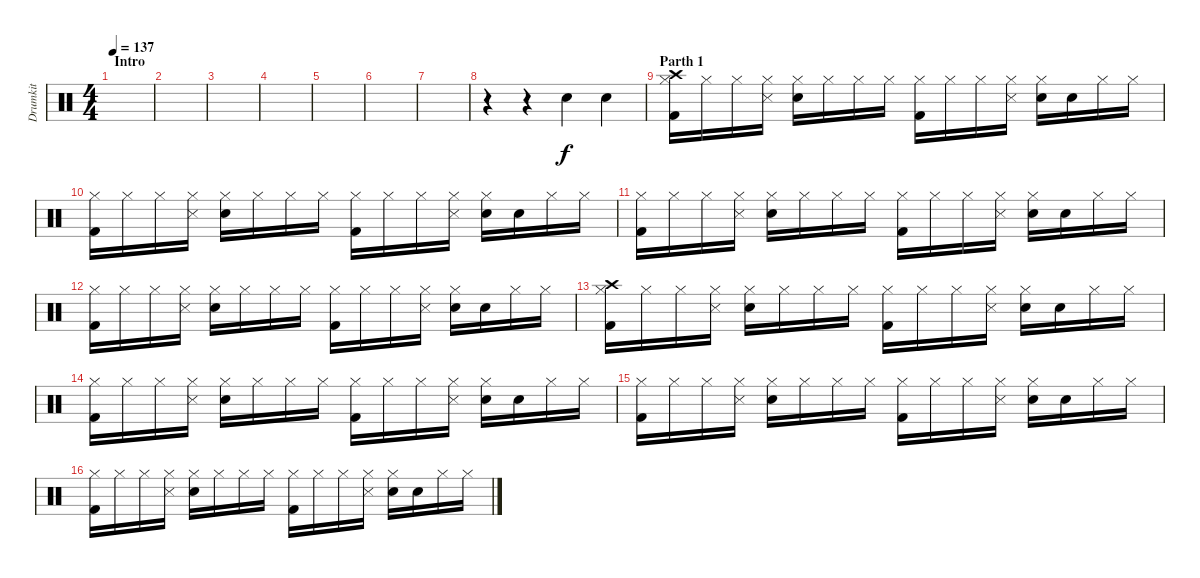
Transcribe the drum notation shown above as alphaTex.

\track ("Drumkit" "Drumkit") {instrument percussion}
\staff {score}
\articulation defaults
\ts (4 4)
\section ("" "Intro")
\tempo 137
\clef neutral
\ks c
|
|
|
|
|
|
|
r.4 r.4 "Snare (hit) 2".4 "Snare (hit) 2".4 |
\section ("" "Parth 1")
("Hi-Hat (closed)" "Crash high (hit)" "Kick (hit) 2").16 "Hi-Hat (closed)".16 "Hi-Hat (closed)".16 ("Hi-Hat (closed)" "Snare (side stick) 3").16 ("Hi-Hat (closed)" "Electric Snare (hit)").16 "Hi-Hat (closed)".16 "Hi-Hat (closed)".16 "Hi-Hat (closed)".16 ("Hi-Hat (closed)" "Kick (hit) 2").16 "Hi-Hat (closed)".16 "Hi-Hat (closed)".16 ("Hi-Hat (closed)" "Snare (side stick) 3").16 ("Hi-Hat (closed)" "Electric Snare (hit)").16 "Snare (hit)".16 "Hi-Hat (closed)".16 "Hi-Hat (closed)".16 |
("Hi-Hat (closed)" "Kick (hit) 2").16 "Hi-Hat (closed)".16 "Hi-Hat (closed)".16 ("Hi-Hat (closed)" "Snare (side stick) 3").16 ("Hi-Hat (closed)" "Electric Snare (hit)").16 "Hi-Hat (closed)".16 "Hi-Hat (closed)".16 "Hi-Hat (closed)".16 ("Hi-Hat (closed)" "Kick (hit) 2").16 "Hi-Hat (closed)".16 "Hi-Hat (closed)".16 ("Hi-Hat (closed)" "Snare (side stick) 3").16 ("Hi-Hat (closed)" "Electric Snare (hit)").16 "Snare (hit)".16 "Hi-Hat (closed)".16 "Hi-Hat (closed)".16 |
("Hi-Hat (closed)" "Kick (hit) 2").16 "Hi-Hat (closed)".16 "Hi-Hat (closed)".16 ("Hi-Hat (closed)" "Snare (side stick) 3").16 ("Hi-Hat (closed)" "Electric Snare (hit)").16 "Hi-Hat (closed)".16 "Hi-Hat (closed)".16 "Hi-Hat (closed)".16 ("Hi-Hat (closed)" "Kick (hit) 2").16 "Hi-Hat (closed)".16 "Hi-Hat (closed)".16 ("Hi-Hat (closed)" "Snare (side stick) 3").16 ("Hi-Hat (closed)" "Electric Snare (hit)").16 "Snare (hit)".16 "Hi-Hat (closed)".16 "Hi-Hat (closed)".16 |
("Hi-Hat (closed)" "Kick (hit) 2").16 "Hi-Hat (closed)".16 "Hi-Hat (closed)".16 ("Hi-Hat (closed)" "Snare (side stick) 3").16 ("Hi-Hat (closed)" "Electric Snare (hit)").16 "Hi-Hat (closed)".16 "Hi-Hat (closed)".16 "Hi-Hat (closed)".16 ("Hi-Hat (closed)" "Kick (hit) 2").16 "Hi-Hat (closed)".16 "Hi-Hat (closed)".16 ("Hi-Hat (closed)" "Snare (side stick) 3").16 ("Hi-Hat (closed)" "Electric Snare (hit)").16 "Snare (hit)".16 "Hi-Hat (closed)".16 "Hi-Hat (closed)".16 |
("Hi-Hat (closed)" "Crash high (hit)" "Kick (hit) 2").16 "Hi-Hat (closed)".16 "Hi-Hat (closed)".16 ("Hi-Hat (closed)" "Snare (side stick) 3").16 ("Hi-Hat (closed)" "Electric Snare (hit)").16 "Hi-Hat (closed)".16 "Hi-Hat (closed)".16 "Hi-Hat (closed)".16 ("Hi-Hat (closed)" "Kick (hit) 2").16 "Hi-Hat (closed)".16 "Hi-Hat (closed)".16 ("Hi-Hat (closed)" "Snare (side stick) 3").16 ("Hi-Hat (closed)" "Electric Snare (hit)").16 "Snare (hit)".16 "Hi-Hat (closed)".16 "Hi-Hat (closed)".16 |
("Hi-Hat (closed)" "Kick (hit) 2").16 "Hi-Hat (closed)".16 "Hi-Hat (closed)".16 ("Hi-Hat (closed)" "Snare (side stick) 3").16 ("Hi-Hat (closed)" "Electric Snare (hit)").16 "Hi-Hat (closed)".16 "Hi-Hat (closed)".16 "Hi-Hat (closed)".16 ("Hi-Hat (closed)" "Kick (hit) 2").16 "Hi-Hat (closed)".16 "Hi-Hat (closed)".16 ("Hi-Hat (closed)" "Snare (side stick) 3").16 ("Hi-Hat (closed)" "Electric Snare (hit)").16 "Snare (hit)".16 "Hi-Hat (closed)".16 "Hi-Hat (closed)".16 |
("Hi-Hat (closed)" "Kick (hit) 2").16 "Hi-Hat (closed)".16 "Hi-Hat (closed)".16 ("Hi-Hat (closed)" "Snare (side stick) 3").16 ("Hi-Hat (closed)" "Electric Snare (hit)").16 "Hi-Hat (closed)".16 "Hi-Hat (closed)".16 "Hi-Hat (closed)".16 ("Hi-Hat (closed)" "Kick (hit) 2").16 "Hi-Hat (closed)".16 "Hi-Hat (closed)".16 ("Hi-Hat (closed)" "Snare (side stick) 3").16 ("Hi-Hat (closed)" "Electric Snare (hit)").16 "Snare (hit)".16 "Hi-Hat (closed)".16 "Hi-Hat (closed)".16 |
("Hi-Hat (closed)" "Kick (hit) 2").16 "Hi-Hat (closed)".16 "Hi-Hat (closed)".16 ("Hi-Hat (closed)" "Snare (side stick) 3").16 ("Hi-Hat (closed)" "Electric Snare (hit)").16 "Hi-Hat (closed)".16 "Hi-Hat (closed)".16 "Hi-Hat (closed)".16 ("Hi-Hat (closed)" "Kick (hit) 2").16 "Hi-Hat (closed)".16 "Hi-Hat (closed)".16 ("Hi-Hat (closed)" "Snare (side stick) 3").16 ("Hi-Hat (closed)" "Electric Snare (hit)").16 "Snare (hit)".16 "Hi-Hat (closed)".16 "Hi-Hat (closed)".16
